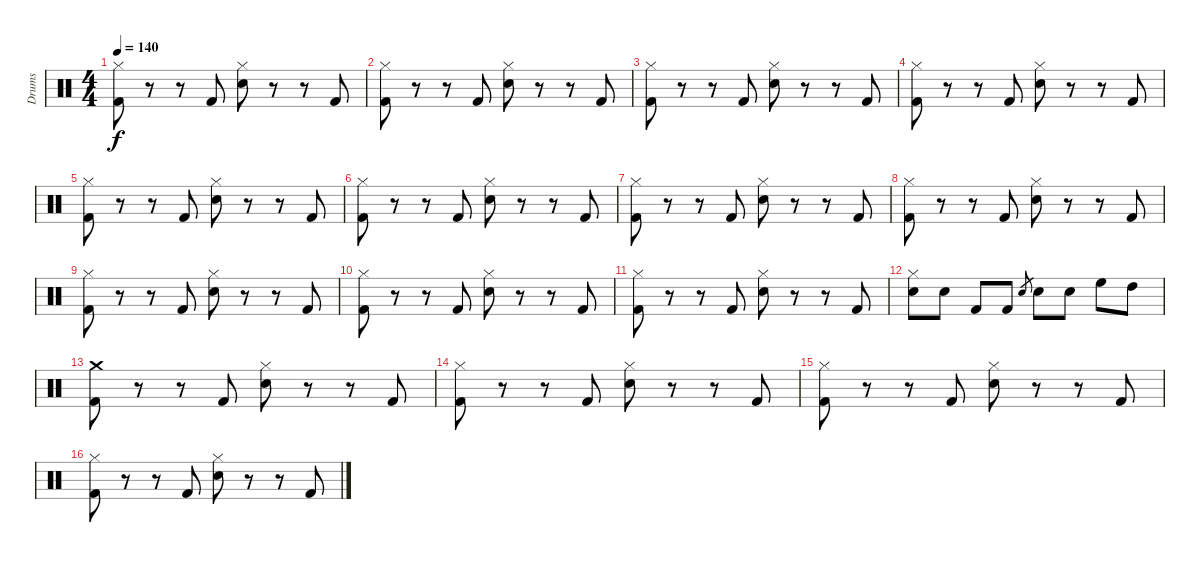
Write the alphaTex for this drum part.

\track ("Drums" "Drums") {instrument percussion}
\staff {score}
\articulation defaults
\ts (4 4)
\tempo 140
\clef neutral
\ks c
("Hi-Hat (closed)" "Kick (hit) 2").8{dy f} r.8 r.8 "Kick (hit) 2".8 ("Hi-Hat (closed)" "Snare (hit) 2").8 r.8 r.8 "Kick (hit) 2".8 |
("Hi-Hat (closed)" "Kick (hit) 2").8 r.8 r.8 "Kick (hit) 2".8 ("Hi-Hat (closed)" "Snare (hit) 2").8 r.8 r.8 "Kick (hit) 2".8 |
("Hi-Hat (closed)" "Kick (hit) 2").8 r.8 r.8 "Kick (hit) 2".8 ("Hi-Hat (closed)" "Snare (hit) 2").8 r.8 r.8 "Kick (hit) 2".8 |
("Hi-Hat (closed)" "Kick (hit) 2").8 r.8 r.8 "Kick (hit) 2".8 ("Hi-Hat (closed)" "Snare (hit) 2").8 r.8 r.8 "Kick (hit) 2".8 |
("Hi-Hat (closed)" "Kick (hit) 2").8 r.8 r.8 "Kick (hit) 2".8 ("Hi-Hat (closed)" "Snare (hit) 2").8 r.8 r.8 "Kick (hit) 2".8 |
("Hi-Hat (closed)" "Kick (hit) 2").8 r.8 r.8 "Kick (hit) 2".8 ("Hi-Hat (closed)" "Snare (hit) 2").8 r.8 r.8 "Kick (hit) 2".8 |
("Hi-Hat (closed)" "Kick (hit) 2").8 r.8 r.8 "Kick (hit) 2".8 ("Hi-Hat (closed)" "Snare (hit) 2").8 r.8 r.8 "Kick (hit) 2".8 |
("Hi-Hat (closed)" "Kick (hit) 2").8 r.8 r.8 "Kick (hit) 2".8 ("Hi-Hat (closed)" "Snare (hit) 2").8 r.8 r.8 "Kick (hit) 2".8 |
("Hi-Hat (closed)" "Kick (hit) 2").8 r.8 r.8 "Kick (hit) 2".8 ("Hi-Hat (closed)" "Snare (hit) 2").8 r.8 r.8 "Kick (hit) 2".8 |
("Hi-Hat (closed)" "Kick (hit) 2").8 r.8 r.8 "Kick (hit) 2".8 ("Hi-Hat (closed)" "Snare (hit) 2").8 r.8 r.8 "Kick (hit) 2".8 |
("Hi-Hat (closed)" "Kick (hit) 2").8 r.8 r.8 "Kick (hit) 2".8 ("Hi-Hat (closed)" "Snare (hit) 2").8 r.8 r.8 "Kick (hit) 2".8 |
("Hi-Hat (closed)" "Snare (hit) 2").8 "Snare (hit) 2".8 "Kick (hit) 2".8 "Kick (hit) 2".8 "Electric Snare (hit)".8{gr} "Electric Snare (hit)".8 "Snare (hit) 2".8 "High Floor Tom (hit)".8 "High Tom (hit)".8 |
("Crash medium (hit)" "Kick (hit) 2").8 r.8 r.8 "Kick (hit) 2".8 ("Hi-Hat (closed)" "Snare (hit) 2").8 r.8 r.8 "Kick (hit) 2".8 |
("Hi-Hat (closed)" "Kick (hit) 2").8 r.8 r.8 "Kick (hit) 2".8 ("Hi-Hat (closed)" "Snare (hit) 2").8 r.8 r.8 "Kick (hit) 2".8 |
("Hi-Hat (closed)" "Kick (hit) 2").8 r.8 r.8 "Kick (hit) 2".8 ("Hi-Hat (closed)" "Snare (hit) 2").8 r.8 r.8 "Kick (hit) 2".8 |
("Hi-Hat (closed)" "Kick (hit) 2").8 r.8 r.8 "Kick (hit) 2".8 ("Hi-Hat (closed)" "Snare (hit) 2").8 r.8 r.8 "Kick (hit) 2".8
